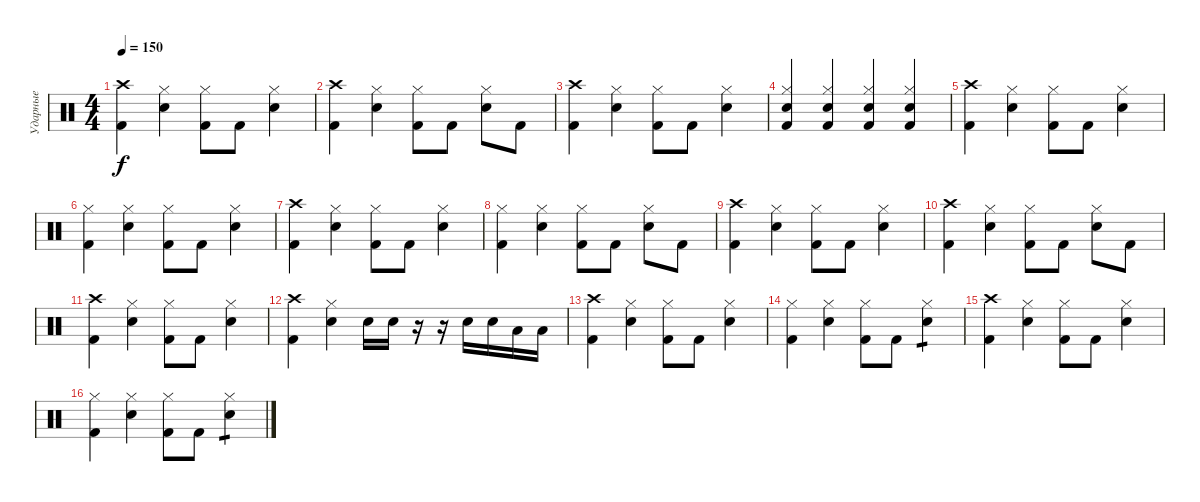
\track ("Ударные" "Ударные") {instrument percussion}
\staff {score}
\articulation defaults
\ts (4 4)
\tempo 150
\clef neutral
\ks c
("Crash high (hit)" "Kick (hit) 2").4{dy f} ("Hi-Hat (closed)" "Electric Snare (hit)").4 ("Hi-Hat (closed)" "Kick (hit) 2").8 "Kick (hit) 2".8 ("Hi-Hat (closed)" "Electric Snare (hit)").4 |
("Crash high (hit)" "Kick (hit) 2").4 ("Hi-Hat (closed)" "Electric Snare (hit)").4 ("Hi-Hat (closed)" "Kick (hit) 2").8 "Kick (hit) 2".8 ("Hi-Hat (closed)" "Electric Snare (hit)").8 "Kick (hit) 2".8 |
("Crash high (hit)" "Kick (hit) 2").4 ("Hi-Hat (closed)" "Electric Snare (hit)").4 ("Hi-Hat (closed)" "Kick (hit) 2").8 "Kick (hit) 2".8 ("Hi-Hat (closed)" "Electric Snare (hit)").4 |
("Electric Snare (hit)" "Kick (hit) 2" "Hi-Hat (closed)").4 ("Kick (hit) 2" "Hi-Hat (closed)" "Electric Snare (hit)").4 ("Kick (hit) 2" "Electric Snare (hit)" "Hi-Hat (closed)").4 ("Kick (hit) 2" "Electric Snare (hit)" "Hi-Hat (closed)").4 |
("Crash high (hit)" "Kick (hit) 2").4 ("Hi-Hat (closed)" "Electric Snare (hit)").4 ("Hi-Hat (closed)" "Kick (hit) 2").8 "Kick (hit) 2".8 ("Hi-Hat (closed)" "Electric Snare (hit)").4 |
("Hi-Hat (closed)" "Kick (hit) 2").4 ("Hi-Hat (closed)" "Electric Snare (hit)").4 ("Hi-Hat (closed)" "Kick (hit) 2").8 "Kick (hit) 2".8 ("Hi-Hat (closed)" "Electric Snare (hit)").4 |
("Crash high (hit)" "Kick (hit) 2").4 ("Hi-Hat (closed)" "Electric Snare (hit)").4 ("Hi-Hat (closed)" "Kick (hit) 2").8 "Kick (hit) 2".8 ("Hi-Hat (closed)" "Electric Snare (hit)").4 |
("Hi-Hat (closed)" "Kick (hit) 2").4 ("Hi-Hat (closed)" "Electric Snare (hit)").4 ("Hi-Hat (closed)" "Kick (hit) 2").8 "Kick (hit) 2".8 ("Hi-Hat (closed)" "Electric Snare (hit)").8 "Kick (hit) 2".8 |
("Crash high (hit)" "Kick (hit) 2").4 ("Hi-Hat (closed)" "Electric Snare (hit)").4 ("Hi-Hat (closed)" "Kick (hit) 2").8 "Kick (hit) 2".8 ("Hi-Hat (closed)" "Electric Snare (hit)").4 |
("Crash high (hit)" "Kick (hit) 2").4 ("Hi-Hat (closed)" "Electric Snare (hit)").4 ("Hi-Hat (closed)" "Kick (hit) 2").8 "Kick (hit) 2".8 ("Hi-Hat (closed)" "Electric Snare (hit)").8 "Kick (hit) 2".8 |
("Crash high (hit)" "Kick (hit) 2").4 ("Hi-Hat (closed)" "Electric Snare (hit)").4 ("Hi-Hat (closed)" "Kick (hit) 2").8 "Kick (hit) 2".8 ("Hi-Hat (closed)" "Electric Snare (hit)").4 |
("Crash high (hit)" "Kick (hit) 2").4 ("Hi-Hat (closed)" "Electric Snare (hit)").4 "Electric Snare (hit)".16 "Electric Snare (hit)".16 r.16 r.16 "Electric Snare (hit)".16 "Electric Snare (hit)".16 "Low Tom (hit)".16 "Low Tom (hit)".16 |
("Crash high (hit)" "Kick (hit) 2").4 ("Hi-Hat (closed)" "Electric Snare (hit)").4 ("Hi-Hat (closed)" "Kick (hit) 2").8 "Kick (hit) 2".8 ("Hi-Hat (closed)" "Electric Snare (hit)").4 |
("Hi-Hat (closed)" "Kick (hit) 2").4 ("Hi-Hat (closed)" "Electric Snare (hit)").4 ("Hi-Hat (closed)" "Kick (hit) 2").8 "Kick (hit) 2".8 ("Hi-Hat (closed)" "Electric Snare (hit)").4{tp 1} |
("Crash high (hit)" "Kick (hit) 2").4 ("Hi-Hat (closed)" "Electric Snare (hit)").4 ("Hi-Hat (closed)" "Kick (hit) 2").8 "Kick (hit) 2".8 ("Hi-Hat (closed)" "Electric Snare (hit)").4 |
("Hi-Hat (closed)" "Kick (hit) 2").4 ("Hi-Hat (closed)" "Electric Snare (hit)").4 ("Hi-Hat (closed)" "Kick (hit) 2").8 "Kick (hit) 2".8 ("Hi-Hat (closed)" "Electric Snare (hit)").4{tp 1}
